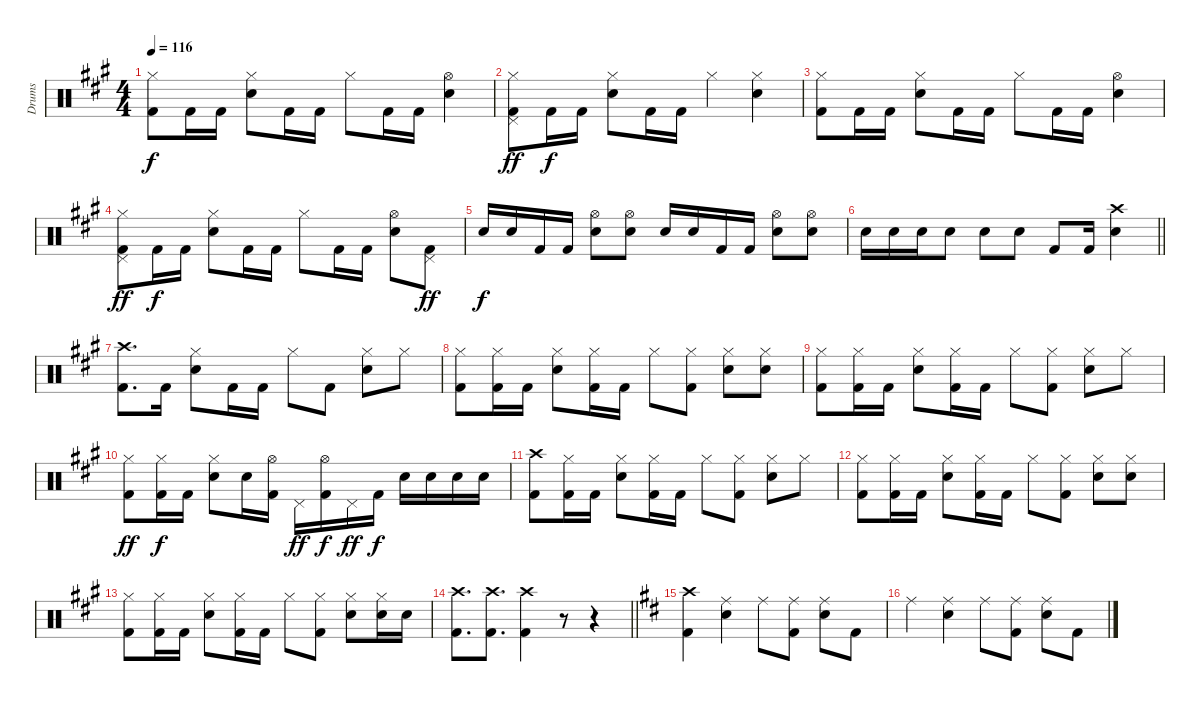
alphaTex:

\track ("Drums" "Drums") {instrument percussion}
\staff {score}
\articulation defaults
\ts (4 4)
\tempo 116
\clef neutral
\ks a
("Hi-Hat (closed)" "Kick (hit) 2").8{dy f} "Kick (hit) 2".16 "Kick (hit) 2".16 ("Hi-Hat (closed)" "Snare (hit) 2").8 "Kick (hit) 2".16 "Kick (hit) 2".16 "Hi-Hat (closed)".8 "Kick (hit) 2".16 "Kick (hit) 2".16 ("Hi-Hat (open)" "Snare (hit) 2").4 |
("Hi-Hat (closed)" "Kick (hit) 2" "Pedal Hi-Hat (hit)").8{dy ff} "Kick (hit) 2".16{dy f} "Kick (hit) 2".16 ("Hi-Hat (closed)" "Snare (hit) 2").8 "Kick (hit) 2".16 "Kick (hit) 2".16 "Hi-Hat (closed)".4 ("Hi-Hat (closed)" "Snare (hit) 2").4 |
("Hi-Hat (closed)" "Kick (hit) 2").8 "Kick (hit) 2".16 "Kick (hit) 2".16 ("Hi-Hat (closed)" "Snare (hit) 2").8 "Kick (hit) 2".16 "Kick (hit) 2".16 "Hi-Hat (closed)".8 "Kick (hit) 2".16 "Kick (hit) 2".16 ("Hi-Hat (open)" "Snare (hit) 2").4 |
("Hi-Hat (closed)" "Kick (hit) 2" "Pedal Hi-Hat (hit)").8{dy ff} "Kick (hit) 2".16{dy f} "Kick (hit) 2".16 ("Hi-Hat (closed)" "Snare (hit) 2").8 "Kick (hit) 2".16 "Kick (hit) 2".16 "Hi-Hat (closed)".8 "Kick (hit) 2".16 "Kick (hit) 2".16 ("Hi-Hat (open)" "Snare (hit) 2").8 ("Pedal Hi-Hat (hit)" "Kick (hit) 2").8{dy ff} |
"Snare (hit) 2".16{dy f} "Snare (hit) 2".16 "Kick (hit) 2".16 "Kick (hit) 2".16 ("Hi-Hat (open)" "Snare (hit) 2").8 ("Hi-Hat (open)" "Snare (hit) 2").8 "Snare (hit) 2".16 "Snare (hit) 2".16 "Kick (hit) 2".16 "Kick (hit) 2".16 ("Hi-Hat (open)" "Snare (hit) 2").8 ("Hi-Hat (open)" "Snare (hit) 2").8 |
\barLineRight lightlight "Snare (hit) 2".16 "Snare (hit) 2".16 "Snare (hit) 2".16 "Snare (hit) 2".8 "Snare (hit) 2".8 "Snare (hit) 2".8 "Kick (hit) 2".8 "Kick (hit) 2".16
("Crash high (hit)" "Snare (hit) 2").4 |
("Crash high (hit)" "Kick (hit) 2").8{d} "Kick (hit) 2".16 ("Hi-Hat (closed)" "Snare (hit) 2").8 "Kick (hit) 2".16 "Kick (hit) 2".16 "Hi-Hat (closed)".8 "Kick (hit) 2".8 ("Hi-Hat (closed)" "Snare (hit) 2").8 "Hi-Hat (closed)".8 |
("Hi-Hat (closed)" "Kick (hit) 2").8 ("Hi-Hat (closed)" "Kick (hit) 2").16 "Kick (hit) 2".16 ("Hi-Hat (closed)" "Snare (hit) 2").8 ("Hi-Hat (closed)" "Kick (hit) 2").16 "Kick (hit) 2".16 "Hi-Hat (closed)".8 ("Hi-Hat (closed)" "Kick (hit) 2").8 ("Hi-Hat (closed)" "Snare (hit) 2").8 ("Hi-Hat (closed)" "Snare (hit) 2").8 |
("Hi-Hat (closed)" "Kick (hit) 2").8 ("Hi-Hat (closed)" "Kick (hit) 2").16 "Kick (hit) 2".16 ("Hi-Hat (closed)" "Snare (hit) 2").8 ("Hi-Hat (closed)" "Kick (hit) 2").16 "Kick (hit) 2".16 "Hi-Hat (closed)".8 ("Hi-Hat (closed)" "Kick (hit) 2").8 ("Hi-Hat (closed)" "Snare (hit) 2").8 "Hi-Hat (closed)".8 |
("Hi-Hat (closed)" "Kick (hit) 2").8{dy ff} ("Hi-Hat (closed)" "Kick (hit) 2").16{dy f} "Kick (hit) 2".16 ("Hi-Hat (closed)" "Snare (hit) 2").8 "Snare (hit) 2".16 ("Hi-Hat (open)" "Kick (hit) 2").16 "Pedal Hi-Hat (hit)".16{dy ff} ("Hi-Hat (open)" "Kick (hit) 2").16{dy f} "Pedal Hi-Hat (hit)".16{dy ff} "Kick (hit) 2".16{dy f} "Snare (hit) 2".16 "Snare (hit) 2".16 "Snare (hit) 2".16 "Snare (hit) 2".16 |
("Crash high (hit)" "Kick (hit) 2").8 ("Hi-Hat (closed)" "Kick (hit) 2").16 "Kick (hit) 2".16 ("Hi-Hat (closed)" "Snare (hit) 2").8 ("Hi-Hat (closed)" "Kick (hit) 2").16 "Kick (hit) 2".16 "Hi-Hat (closed)".8 ("Hi-Hat (closed)" "Kick (hit) 2").8 ("Hi-Hat (closed)" "Snare (hit) 2").8 "Hi-Hat (closed)".8 |
("Hi-Hat (closed)" "Kick (hit) 2").8 ("Hi-Hat (closed)" "Kick (hit) 2").16 "Kick (hit) 2".16 ("Hi-Hat (closed)" "Snare (hit) 2").8 ("Hi-Hat (closed)" "Kick (hit) 2").16 "Kick (hit) 2".16 "Hi-Hat (closed)".8 ("Hi-Hat (closed)" "Kick (hit) 2").8 ("Hi-Hat (closed)" "Snare (hit) 2").8 ("Hi-Hat (closed)" "Snare (hit) 2").8 |
("Hi-Hat (closed)" "Kick (hit) 2").8 ("Hi-Hat (closed)" "Kick (hit) 2").16 "Kick (hit) 2".16 ("Hi-Hat (closed)" "Snare (hit) 2").8 ("Hi-Hat (closed)" "Kick (hit) 2").16 "Kick (hit) 2".16 "Hi-Hat (closed)".8 ("Hi-Hat (closed)" "Kick (hit) 2").8 ("Hi-Hat (closed)" "Snare (hit) 2").8 ("Hi-Hat (closed)" "Snare (hit) 2").16 "Snare (hit) 2".16 |
\barLineRight lightlight
("Kick (hit) 2" "Crash high (hit)").8{d} ("Kick (hit) 2" "Crash high (hit)").8{d} ("Kick (hit) 2" "Crash high (hit)").4 r.8 r.4 |
\ks d
("Crash high (hit)" "Kick (hit) 2").4 ("Snare (hit) 2" "Ride (middle)").4 "Ride (middle)".8 ("Ride (middle)" "Kick (hit) 2").8 ("Snare (hit) 2" "Ride (middle)").8 "Kick (hit) 2".8 |
"Ride (middle)".4 ("Ride (middle)" "Snare (hit) 2").4 "Ride (middle)".8 ("Kick (hit) 2" "Ride (middle)").8 ("Snare (hit) 2" "Ride (middle)").8 "Kick (hit) 2".8
